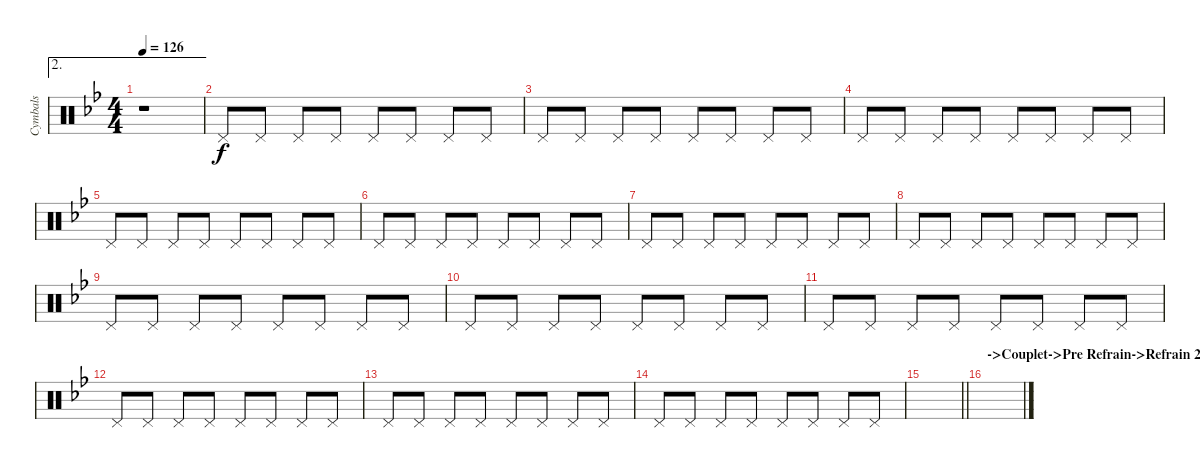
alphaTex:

\track ("Cymbals" "Cymbals") {instrument percussion}
\staff {score}
\articulation defaults
\ae 2
\ts (4 4)
\tempo 126
\clef neutral
\ks bb
r.1{dy f} |
"Pedal Hi-Hat (hit)".8 "Pedal Hi-Hat (hit)".8 "Pedal Hi-Hat (hit)".8 "Pedal Hi-Hat (hit)".8 "Pedal Hi-Hat (hit)".8 "Pedal Hi-Hat (hit)".8 "Pedal Hi-Hat (hit)".8 "Pedal Hi-Hat (hit)".8 |
"Pedal Hi-Hat (hit)".8 "Pedal Hi-Hat (hit)".8 "Pedal Hi-Hat (hit)".8 "Pedal Hi-Hat (hit)".8 "Pedal Hi-Hat (hit)".8 "Pedal Hi-Hat (hit)".8 "Pedal Hi-Hat (hit)".8 "Pedal Hi-Hat (hit)".8 |
"Pedal Hi-Hat (hit)".8 "Pedal Hi-Hat (hit)".8 "Pedal Hi-Hat (hit)".8 "Pedal Hi-Hat (hit)".8 "Pedal Hi-Hat (hit)".8 "Pedal Hi-Hat (hit)".8 "Pedal Hi-Hat (hit)".8 "Pedal Hi-Hat (hit)".8 |
"Pedal Hi-Hat (hit)".8 "Pedal Hi-Hat (hit)".8 "Pedal Hi-Hat (hit)".8 "Pedal Hi-Hat (hit)".8 "Pedal Hi-Hat (hit)".8 "Pedal Hi-Hat (hit)".8 "Pedal Hi-Hat (hit)".8 "Pedal Hi-Hat (hit)".8 |
"Pedal Hi-Hat (hit)".8 "Pedal Hi-Hat (hit)".8 "Pedal Hi-Hat (hit)".8 "Pedal Hi-Hat (hit)".8 "Pedal Hi-Hat (hit)".8 "Pedal Hi-Hat (hit)".8 "Pedal Hi-Hat (hit)".8 "Pedal Hi-Hat (hit)".8 |
"Pedal Hi-Hat (hit)".8 "Pedal Hi-Hat (hit)".8 "Pedal Hi-Hat (hit)".8 "Pedal Hi-Hat (hit)".8 "Pedal Hi-Hat (hit)".8 "Pedal Hi-Hat (hit)".8 "Pedal Hi-Hat (hit)".8 "Pedal Hi-Hat (hit)".8 |
"Pedal Hi-Hat (hit)".8 "Pedal Hi-Hat (hit)".8 "Pedal Hi-Hat (hit)".8 "Pedal Hi-Hat (hit)".8 "Pedal Hi-Hat (hit)".8 "Pedal Hi-Hat (hit)".8 "Pedal Hi-Hat (hit)".8 "Pedal Hi-Hat (hit)".8 |
"Pedal Hi-Hat (hit)".8 "Pedal Hi-Hat (hit)".8 "Pedal Hi-Hat (hit)".8 "Pedal Hi-Hat (hit)".8 "Pedal Hi-Hat (hit)".8 "Pedal Hi-Hat (hit)".8 "Pedal Hi-Hat (hit)".8 "Pedal Hi-Hat (hit)".8 |
"Pedal Hi-Hat (hit)".8 "Pedal Hi-Hat (hit)".8 "Pedal Hi-Hat (hit)".8 "Pedal Hi-Hat (hit)".8 "Pedal Hi-Hat (hit)".8 "Pedal Hi-Hat (hit)".8 "Pedal Hi-Hat (hit)".8 "Pedal Hi-Hat (hit)".8 |
"Pedal Hi-Hat (hit)".8 "Pedal Hi-Hat (hit)".8 "Pedal Hi-Hat (hit)".8 "Pedal Hi-Hat (hit)".8 "Pedal Hi-Hat (hit)".8 "Pedal Hi-Hat (hit)".8 "Pedal Hi-Hat (hit)".8 "Pedal Hi-Hat (hit)".8 |
"Pedal Hi-Hat (hit)".8 "Pedal Hi-Hat (hit)".8 "Pedal Hi-Hat (hit)".8 "Pedal Hi-Hat (hit)".8 "Pedal Hi-Hat (hit)".8 "Pedal Hi-Hat (hit)".8 "Pedal Hi-Hat (hit)".8 "Pedal Hi-Hat (hit)".8 |
"Pedal Hi-Hat (hit)".8 "Pedal Hi-Hat (hit)".8 "Pedal Hi-Hat (hit)".8 "Pedal Hi-Hat (hit)".8 "Pedal Hi-Hat (hit)".8 "Pedal Hi-Hat (hit)".8 "Pedal Hi-Hat (hit)".8 "Pedal Hi-Hat (hit)".8 |
"Pedal Hi-Hat (hit)".8 "Pedal Hi-Hat (hit)".8 "Pedal Hi-Hat (hit)".8 "Pedal Hi-Hat (hit)".8 "Pedal Hi-Hat (hit)".8 "Pedal Hi-Hat (hit)".8 "Pedal Hi-Hat (hit)".8 "Pedal Hi-Hat (hit)".8 |
\barLineRight lightlight
|
\section ("" "->Couplet->Pre Refrain->Refrain 2x")
